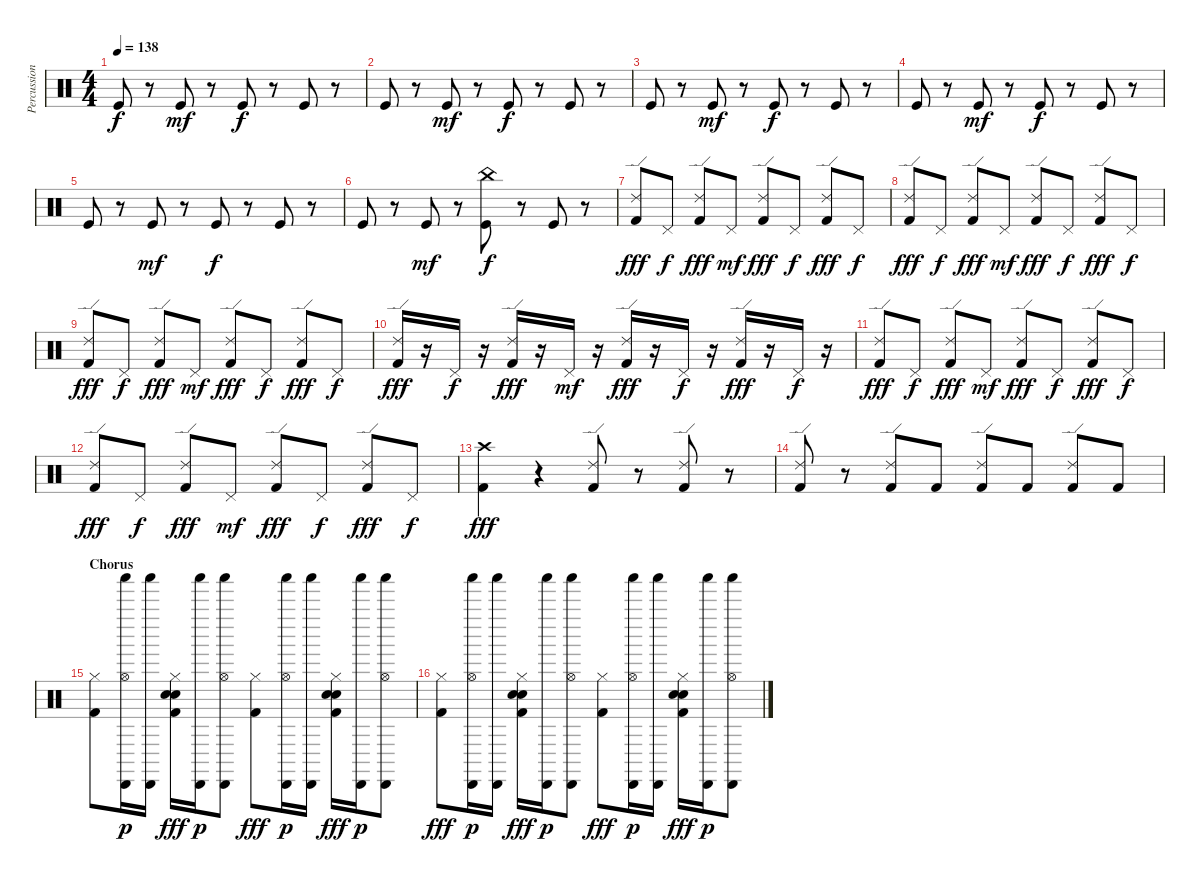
\track ("Percussion" "Percussion") {instrument percussion}
\staff {score}
\articulation defaults
\ts (4 4)
\tempo 138
\clef neutral
\ks c "Kick (hit)".8{dy f}
r.8 "Kick (hit)".8{dy mf} r.8 "Kick (hit)".8{dy f} r.8 "Kick (hit)".8 r.8 |
"Kick (hit)".8 r.8 "Kick (hit)".8{dy mf} r.8 "Kick (hit)".8{dy f} r.8 "Kick (hit)".8 r.8 |
"Kick (hit)".8 r.8 "Kick (hit)".8{dy mf} r.8 "Kick (hit)".8{dy f} r.8 "Kick (hit)".8 r.8 |
"Kick (hit)".8 r.8 "Kick (hit)".8{dy mf} r.8 "Kick (hit)".8{dy f} r.8 "Kick (hit)".8 r.8 |
"Kick (hit)".8 r.8 "Kick (hit)".8{dy mf} r.8 "Kick (hit)".8{dy f} r.8 "Kick (hit)".8 r.8 |
"Kick (hit)".8 r.8 "Kick (hit)".8{dy mf} r.8 ("China (hit)" "Kick (hit)").8{dy f} r.8 "Kick (hit)".8 r.8 |
("Ride (edge) 2" "Kick (hit) 2").8{dy fff} "Pedal Hi-Hat (hit)".8{dy f} ("Ride (edge) 2" "Kick (hit) 2").8{dy fff} "Pedal Hi-Hat (hit)".8{dy mf} ("Ride (edge) 2" "Kick (hit) 2").8{dy fff} "Pedal Hi-Hat (hit)".8{dy f} ("Ride (edge) 2" "Kick (hit) 2").8{dy fff} "Pedal Hi-Hat (hit)".8{dy f} |
("Ride (edge) 2" "Kick (hit) 2").8{dy fff} "Pedal Hi-Hat (hit)".8{dy f} ("Ride (edge) 2" "Kick (hit) 2").8{dy fff} "Pedal Hi-Hat (hit)".8{dy mf} ("Ride (edge) 2" "Kick (hit) 2").8{dy fff} "Pedal Hi-Hat (hit)".8{dy f} ("Ride (edge) 2" "Kick (hit) 2").8{dy fff} "Pedal Hi-Hat (hit)".8{dy f} |
("Ride (edge) 2" "Kick (hit) 2").8{dy fff} "Pedal Hi-Hat (hit)".8{dy f} ("Ride (edge) 2" "Kick (hit) 2").8{dy fff} "Pedal Hi-Hat (hit)".8{dy mf} ("Ride (edge) 2" "Kick (hit) 2").8{dy fff} "Pedal Hi-Hat (hit)".8{dy f} ("Ride (edge) 2" "Kick (hit) 2").8{dy fff} "Pedal Hi-Hat (hit)".8{dy f} |
("Ride (edge) 2" "Kick (hit) 2").16{dy fff} r.16 "Pedal Hi-Hat (hit)".16{dy f} r.16 ("Ride (edge) 2" "Kick (hit) 2").16{dy fff} r.16 "Pedal Hi-Hat (hit)".16{dy mf} r.16 ("Ride (edge) 2" "Kick (hit) 2").16{dy fff} r.16 "Pedal Hi-Hat (hit)".16{dy f} r.16 ("Ride (edge) 2" "Kick (hit) 2").16{dy fff} r.16 "Pedal Hi-Hat (hit)".16{dy f} r.16 |
("Ride (edge) 2" "Kick (hit) 2").8{dy fff} "Pedal Hi-Hat (hit)".8{dy f} ("Ride (edge) 2" "Kick (hit) 2").8{dy fff} "Pedal Hi-Hat (hit)".8{dy mf} ("Ride (edge) 2" "Kick (hit) 2").8{dy fff} "Pedal Hi-Hat (hit)".8{dy f} ("Ride (edge) 2" "Kick (hit) 2").8{dy fff} "Pedal Hi-Hat (hit)".8{dy f} |
("Ride (edge) 2" "Kick (hit) 2").8{dy fff} "Pedal Hi-Hat (hit)".8{dy f} ("Ride (edge) 2" "Kick (hit) 2").8{dy fff} "Pedal Hi-Hat (hit)".8{dy mf} ("Ride (edge) 2" "Kick (hit) 2").8{dy fff} "Pedal Hi-Hat (hit)".8{dy f} ("Ride (edge) 2" "Kick (hit) 2").8{dy fff} "Pedal Hi-Hat (hit)".8{dy f} |
("Crash high (hit)" "Kick (hit) 2").4{dy fff} r.4 ("Ride (edge) 2" "Kick (hit) 2").8 r.8 ("Ride (edge) 2" "Kick (hit) 2").8 r.8 |
("Ride (edge) 2" "Kick (hit) 2").8 r.8 ("Ride (edge) 2" "Kick (hit) 2").8 "Kick (hit) 2".8 ("Ride (edge) 2" "Kick (hit) 2").8 "Kick (hit) 2".8 ("Ride (edge) 2" "Kick (hit) 2").8 "Kick (hit) 2".8 |
\section ("" "Chorus")
("Hi-Hat (closed)" "Kick (hit) 2").8 ("Cabasa (hit)" "Hi-Hat (open)" "Shaker (hit)").16{dy p} ("Cabasa (hit)" "Shaker (hit)").16 ("Hi-Hat (closed)" "Snare (hit) 2" "Hand Clap (hit)" "Kick (hit) 2").16{dy fff} ("Cabasa (hit)" "Shaker (hit)").16{dy p} ("Cabasa (hit)" "Hi-Hat (open)" "Shaker (hit)").8 ("Hi-Hat (closed)" "Kick (hit) 2").8{dy fff} ("Cabasa (hit)" "Hi-Hat (open)" "Shaker (hit)").16{dy p} ("Cabasa (hit)" "Shaker (hit)").16 ("Hi-Hat (closed)" "Snare (hit) 2" "Hand Clap (hit)" "Kick (hit) 2").16{dy fff} ("Cabasa (hit)" "Shaker (hit)").16{dy p} ("Cabasa (hit)" "Hi-Hat (open)" "Shaker (hit)").8 |
("Hi-Hat (closed)" "Kick (hit) 2").8{dy fff} ("Cabasa (hit)" "Hi-Hat (open)" "Shaker (hit)").16{dy p} ("Cabasa (hit)" "Shaker (hit)").16 ("Hi-Hat (closed)" "Snare (hit) 2" "Hand Clap (hit)" "Kick (hit) 2").16{dy fff} ("Cabasa (hit)" "Shaker (hit)").16{dy p} ("Cabasa (hit)" "Hi-Hat (open)" "Shaker (hit)").8 ("Hi-Hat (closed)" "Kick (hit) 2").8{dy fff} ("Cabasa (hit)" "Hi-Hat (open)" "Shaker (hit)").16{dy p} ("Cabasa (hit)" "Shaker (hit)").16 ("Hi-Hat (closed)" "Snare (hit) 2" "Hand Clap (hit)" "Kick (hit) 2").16{dy fff} ("Cabasa (hit)" "Shaker (hit)").16{dy p} ("Cabasa (hit)" "Hi-Hat (open)" "Shaker (hit)").8
